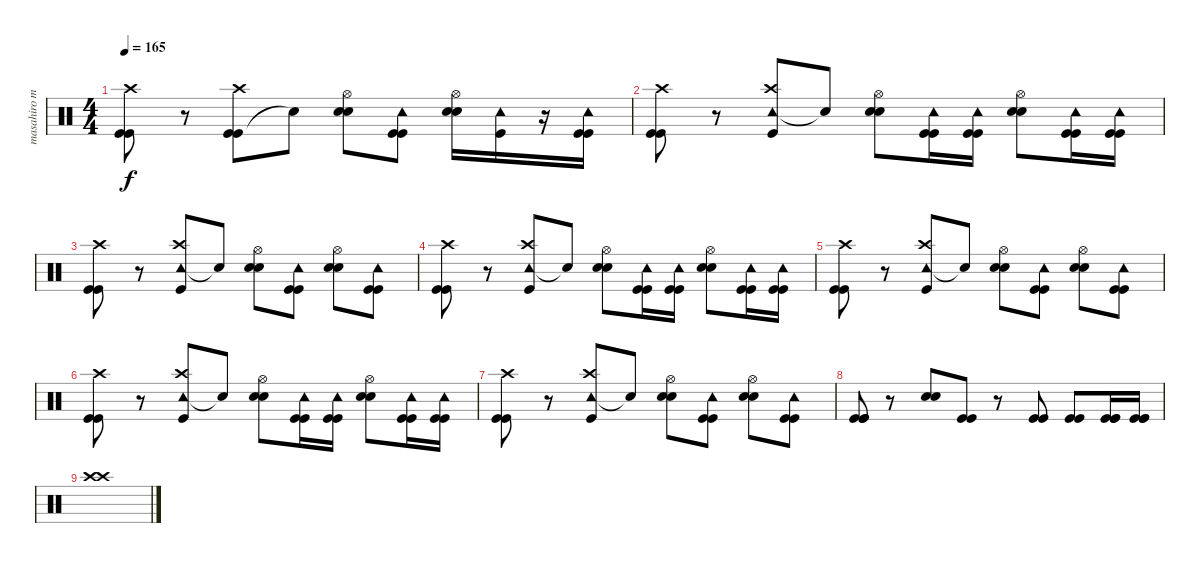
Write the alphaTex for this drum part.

\track ("masahiro muta" "masahiro m") {instrument percussion}
\staff {score}
\articulation defaults
\ts (4 4)
\tempo 165
\clef neutral
\ks c
("Kick (hit)" "Crash high (hit)" "Kick (hit)").8{dy f} r.8 ("Kick (hit)" "Crash high (hit)" "Kick (hit)").8 "Snare (hit)"{t}.8 ("Electric Snare (hit)" "Hi-Hat (open)" "Electric Snare (hit)").8 ("Kick (hit)" "Tambourine (hit)" "Kick (hit)").8 ("Electric Snare (hit)" "Hi-Hat (open)" "Electric Snare (hit)").16 ("Kick (hit)" "Tambourine (hit)").16 r.16 ("Tambourine (hit)" "Kick (hit)" "Kick (hit)").16 |
("Kick (hit)" "Kick (hit)" "Crash high (hit)").8 r.8 ("Tambourine (hit)" "Kick (hit)" "Crash high (hit)").8 "Snare (hit)"{t}.8 ("Electric Snare (hit)" "Hi-Hat (open)" "Electric Snare (hit)").8 ("Tambourine (hit)" "Kick (hit)" "Kick (hit)").16 ("Kick (hit)" "Tambourine (hit)" "Kick (hit)").16 ("Hi-Hat (open)" "Electric Snare (hit)" "Electric Snare (hit)").8 ("Kick (hit)" "Tambourine (hit)" "Kick (hit)").16 ("Kick (hit)" "Tambourine (hit)" "Kick (hit)").16 |
("Kick (hit)" "Kick (hit)" "Crash high (hit)").8 r.8 ("Tambourine (hit)" "Kick (hit)" "Crash high (hit)").8 "Snare (hit)"{t}.8 ("Electric Snare (hit)" "Hi-Hat (open)" "Electric Snare (hit)").8 ("Kick (hit)" "Tambourine (hit)" "Kick (hit)").8 ("Hi-Hat (open)" "Electric Snare (hit)" "Electric Snare (hit)").8 ("Kick (hit)" "Tambourine (hit)" "Kick (hit)").8 |
("Kick (hit)" "Kick (hit)" "Crash high (hit)").8 r.8 ("Tambourine (hit)" "Kick (hit)" "Crash high (hit)").8 "Snare (hit)"{t}.8 ("Electric Snare (hit)" "Hi-Hat (open)" "Electric Snare (hit)").8 ("Tambourine (hit)" "Kick (hit)" "Kick (hit)").16 ("Kick (hit)" "Tambourine (hit)" "Kick (hit)").16 ("Hi-Hat (open)" "Electric Snare (hit)" "Electric Snare (hit)").8 ("Kick (hit)" "Tambourine (hit)" "Kick (hit)").16 ("Kick (hit)" "Tambourine (hit)" "Kick (hit)").16 |
("Kick (hit)" "Kick (hit)" "Crash high (hit)").8 r.8 ("Tambourine (hit)" "Kick (hit)" "Crash high (hit)").8 "Snare (hit)"{t}.8 ("Electric Snare (hit)" "Hi-Hat (open)" "Electric Snare (hit)").8 ("Kick (hit)" "Tambourine (hit)" "Kick (hit)").8 ("Hi-Hat (open)" "Electric Snare (hit)" "Electric Snare (hit)").8 ("Kick (hit)" "Tambourine (hit)" "Kick (hit)").8 |
("Kick (hit)" "Kick (hit)" "Crash high (hit)").8 r.8 ("Tambourine (hit)" "Kick (hit)" "Crash high (hit)").8 "Snare (hit)"{t}.8 ("Electric Snare (hit)" "Hi-Hat (open)" "Electric Snare (hit)").8 ("Tambourine (hit)" "Kick (hit)" "Kick (hit)").16 ("Kick (hit)" "Tambourine (hit)" "Kick (hit)").16 ("Hi-Hat (open)" "Electric Snare (hit)" "Electric Snare (hit)").8 ("Kick (hit)" "Tambourine (hit)" "Kick (hit)").16 ("Kick (hit)" "Tambourine (hit)" "Kick (hit)").16 |
("Kick (hit)" "Kick (hit)" "Crash high (hit)").8 r.8 ("Tambourine (hit)" "Kick (hit)" "Crash high (hit)").8 "Snare (hit)"{t}.8 ("Electric Snare (hit)" "Hi-Hat (open)" "Electric Snare (hit)").8 ("Kick (hit)" "Tambourine (hit)" "Kick (hit)").8 ("Hi-Hat (open)" "Electric Snare (hit)" "Electric Snare (hit)").8 ("Kick (hit)" "Tambourine (hit)" "Kick (hit)").8 |
("Kick (hit)" "Kick (hit)" "Kick (hit)").8 r.8 ("Electric Snare (hit)" "Electric Snare (hit)").8 ("Kick (hit)" "Kick (hit)").8 r.8 ("Kick (hit)" "Kick (hit)").8 ("Kick (hit)" "Kick (hit)").8 ("Kick (hit)" "Kick (hit)" "Kick (hit)").16 ("Kick (hit)" "Kick (hit)" "Kick (hit)").16 |
("Crash high (hit)" "Crash high (hit)").1
